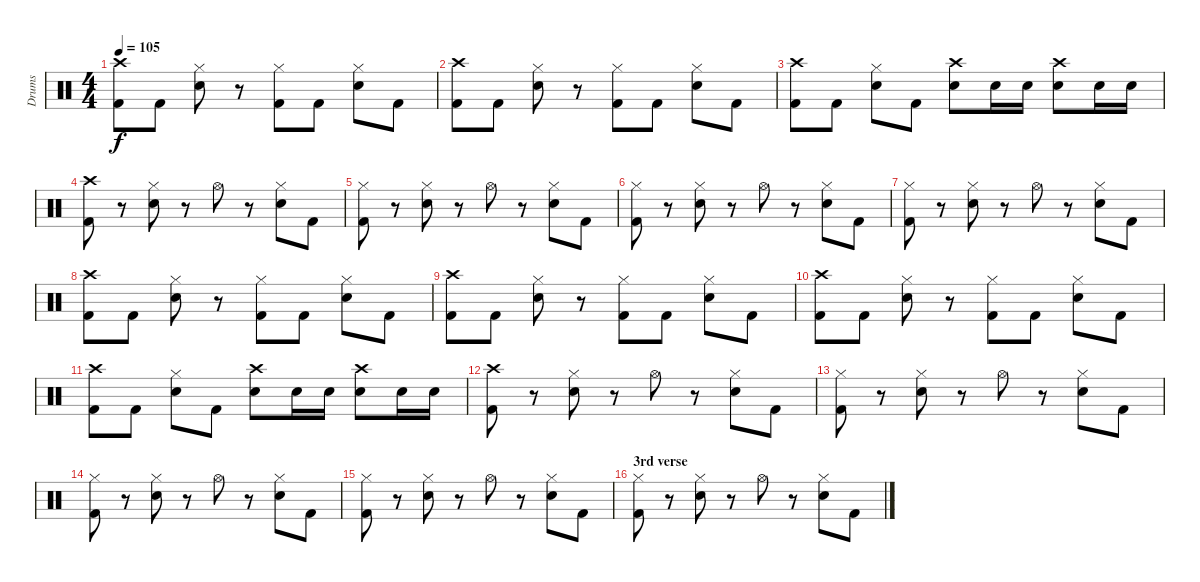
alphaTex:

\track ("Drums" "Drums") {instrument percussion}
\staff {score}
\articulation defaults
\ts (4 4)
\tempo 105
\clef neutral
\ks c
("Crash high (hit)" "Kick (hit) 2").8{dy f} "Kick (hit) 2".8 ("Hi-Hat (closed)" "Electric Snare (hit)").8 r.8 ("Hi-Hat (closed)" "Kick (hit) 2").8 "Kick (hit) 2".8 ("Hi-Hat (closed)" "Electric Snare (hit)").8 "Kick (hit) 2".8 |
("Crash high (hit)" "Kick (hit) 2").8 "Kick (hit) 2".8 ("Hi-Hat (closed)" "Electric Snare (hit)").8 r.8 ("Hi-Hat (closed)" "Kick (hit) 2").8 "Kick (hit) 2".8 ("Hi-Hat (closed)" "Electric Snare (hit)").8 "Kick (hit) 2".8 |
("Crash high (hit)" "Kick (hit) 2").8 "Kick (hit) 2".8 ("Hi-Hat (closed)" "Electric Snare (hit)").8 "Kick (hit) 2".8 ("Crash high (hit)" "Electric Snare (hit)").8 "Electric Snare (hit)".16 "Electric Snare (hit)".16 ("Crash high (hit)" "Electric Snare (hit)").8 "Electric Snare (hit)".16 "Electric Snare (hit)".16 |
("Crash high (hit)" "Kick (hit) 2").8 r.8 ("Hi-Hat (closed)" "Electric Snare (hit)").8 r.8 "Hi-Hat (open)".8 r.8 ("Hi-Hat (closed)" "Electric Snare (hit)").8 "Kick (hit) 2".8 |
("Hi-Hat (closed)" "Kick (hit) 2").8 r.8 ("Hi-Hat (closed)" "Electric Snare (hit)").8 r.8 "Hi-Hat (open)".8 r.8 ("Hi-Hat (closed)" "Electric Snare (hit)").8 "Kick (hit) 2".8 |
("Hi-Hat (closed)" "Kick (hit) 2").8 r.8 ("Hi-Hat (closed)" "Electric Snare (hit)").8 r.8 "Hi-Hat (open)".8 r.8 ("Hi-Hat (closed)" "Electric Snare (hit)").8 "Kick (hit) 2".8 |
("Hi-Hat (closed)" "Kick (hit) 2").8 r.8 ("Hi-Hat (closed)" "Electric Snare (hit)").8 r.8 "Hi-Hat (open)".8 r.8 ("Hi-Hat (closed)" "Electric Snare (hit)").8 "Kick (hit) 2".8 |
("Crash high (hit)" "Kick (hit) 2").8 "Kick (hit) 2".8 ("Hi-Hat (closed)" "Electric Snare (hit)").8 r.8 ("Hi-Hat (closed)" "Kick (hit) 2").8 "Kick (hit) 2".8 ("Hi-Hat (closed)" "Electric Snare (hit)").8 "Kick (hit) 2".8 |
("Crash high (hit)" "Kick (hit) 2").8 "Kick (hit) 2".8 ("Hi-Hat (closed)" "Electric Snare (hit)").8 r.8 ("Hi-Hat (closed)" "Kick (hit) 2").8 "Kick (hit) 2".8 ("Hi-Hat (closed)" "Electric Snare (hit)").8 "Kick (hit) 2".8 |
("Crash high (hit)" "Kick (hit) 2").8 "Kick (hit) 2".8 ("Hi-Hat (closed)" "Electric Snare (hit)").8 r.8 ("Hi-Hat (closed)" "Kick (hit) 2").8 "Kick (hit) 2".8 ("Hi-Hat (closed)" "Electric Snare (hit)").8 "Kick (hit) 2".8 |
("Crash high (hit)" "Kick (hit) 2").8 "Kick (hit) 2".8 ("Hi-Hat (closed)" "Electric Snare (hit)").8 "Kick (hit) 2".8 ("Crash high (hit)" "Electric Snare (hit)").8 "Electric Snare (hit)".16 "Electric Snare (hit)".16 ("Crash high (hit)" "Electric Snare (hit)").8 "Electric Snare (hit)".16 "Electric Snare (hit)".16 |
("Crash high (hit)" "Kick (hit) 2").8 r.8 ("Hi-Hat (closed)" "Electric Snare (hit)").8 r.8 "Hi-Hat (open)".8 r.8 ("Hi-Hat (closed)" "Electric Snare (hit)").8 "Kick (hit) 2".8 |
("Hi-Hat (closed)" "Kick (hit) 2").8 r.8 ("Hi-Hat (closed)" "Electric Snare (hit)").8 r.8 "Hi-Hat (open)".8 r.8 ("Hi-Hat (closed)" "Electric Snare (hit)").8 "Kick (hit) 2".8 |
("Hi-Hat (closed)" "Kick (hit) 2").8 r.8 ("Hi-Hat (closed)" "Electric Snare (hit)").8 r.8 "Hi-Hat (open)".8 r.8 ("Hi-Hat (closed)" "Electric Snare (hit)").8 "Kick (hit) 2".8 |
("Hi-Hat (closed)" "Kick (hit) 2").8 r.8 ("Hi-Hat (closed)" "Electric Snare (hit)").8 r.8 "Hi-Hat (open)".8 r.8 ("Hi-Hat (closed)" "Electric Snare (hit)").8 "Kick (hit) 2".8 |
\section ("" "3rd verse")
("Hi-Hat (closed)" "Kick (hit) 2").8 r.8 ("Hi-Hat (closed)" "Electric Snare (hit)").8 r.8 "Hi-Hat (open)".8 r.8 ("Hi-Hat (closed)" "Electric Snare (hit)").8 "Kick (hit) 2".8
